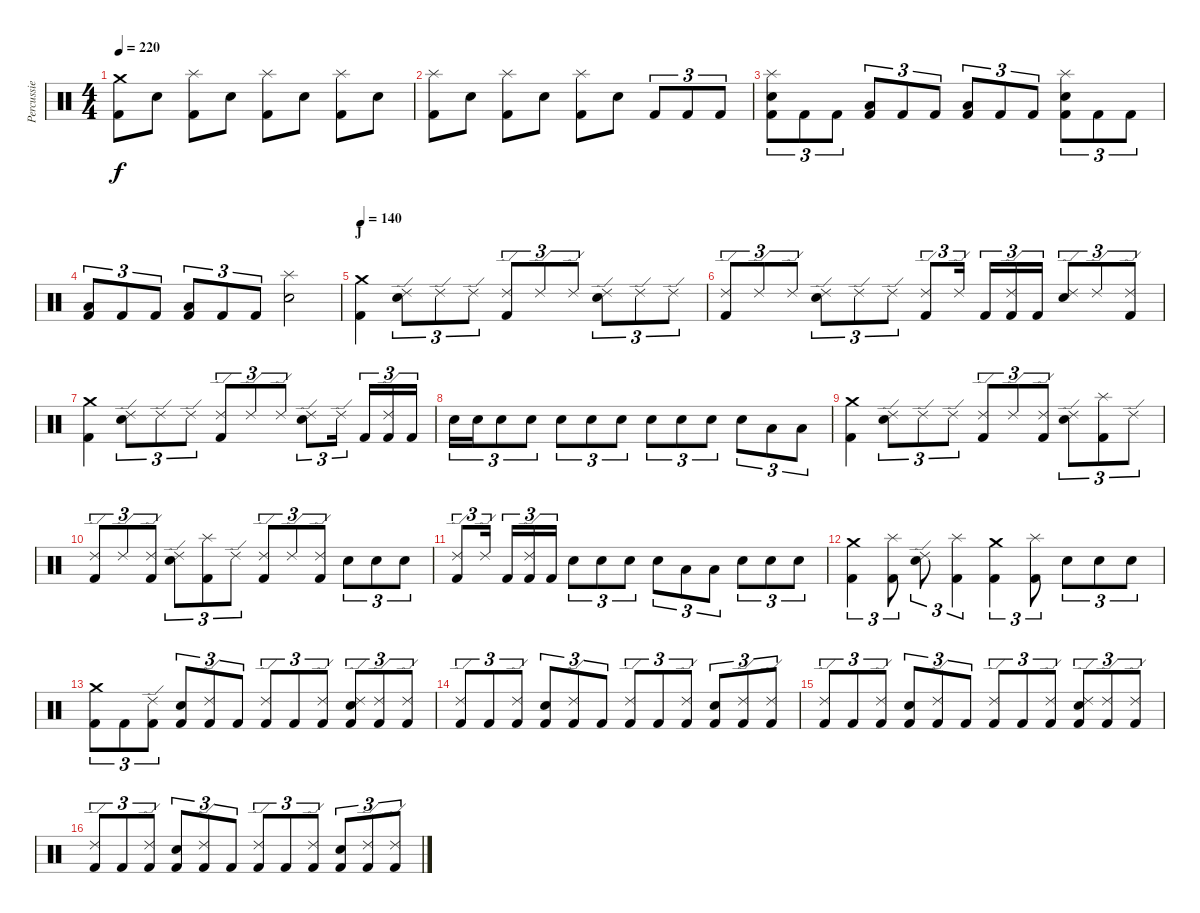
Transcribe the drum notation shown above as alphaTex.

\track ("Percussie" "Percussie") {instrument percussion}
\staff {score}
\articulation defaults
\ts (4 4)
\tempo 220
\clef neutral
\ks c
("Crash medium (hit)" "Kick (hit) 2").8{dy f} "Electric Snare (hit)".8 ("Splash (hit)" "Kick (hit) 2").8 "Electric Snare (hit)".8 ("Splash (hit)" "Kick (hit) 2").8 "Electric Snare (hit)".8 ("Splash (hit)" "Kick (hit) 2").8 "Electric Snare (hit)".8 |
("Splash (hit)" "Kick (hit) 2").8 "Electric Snare (hit)".8 ("Splash (hit)" "Kick (hit) 2").8 "Electric Snare (hit)".8 ("Splash (hit)" "Kick (hit) 2").8 "Electric Snare (hit)".8 "Kick (hit) 2".8{tu (3 2)} "Kick (hit) 2".8{tu (3 2)} "Kick (hit) 2".8{tu (3 2)} |
("Splash (hit)" "Electric Snare (hit)" "Kick (hit) 2").8{tu (3 2)} "Kick (hit) 2".8{tu (3 2)} "Kick (hit) 2".8{tu (3 2)} ("Low Tom (hit)" "Kick (hit) 2").8{tu (3 2)} "Kick (hit) 2".8{tu (3 2)} "Kick (hit) 2".8{tu (3 2)} ("Low Tom (hit)" "Kick (hit) 2").8{tu (3 2)} "Kick (hit) 2".8{tu (3 2)} "Kick (hit) 2".8{tu (3 2)} ("Splash (hit)" "Electric Snare (hit)" "Kick (hit) 2").8{tu (3 2)} "Kick (hit) 2".8{tu (3 2)} "Kick (hit) 2".8{tu (3 2)} |
("Low Tom (hit)" "Kick (hit) 2").8{tu (3 2)} "Kick (hit) 2".8{tu (3 2)} "Kick (hit) 2".8{tu (3 2)} ("Low Tom (hit)" "Kick (hit) 2").8{tu (3 2)} "Kick (hit) 2".8{tu (3 2)} "Kick (hit) 2".8{tu (3 2)} ("Splash (hit)" "Electric Snare (hit)").2 |
\section ("" "J")
\tempo 140
("Crash medium (hit)" "Kick (hit) 2").4 ("Ride (edge) 2" "Electric Snare (hit)").8{tu (3 2)} "Ride (edge) 2".8{tu (3 2)} "Ride (edge) 2".8{tu (3 2)} ("Ride (edge) 2" "Kick (hit) 2").8{tu (3 2)} "Ride (edge) 2".8{tu (3 2)} "Ride (edge) 2".8{tu (3 2)} ("Ride (edge) 2" "Electric Snare (hit)").8{tu (3 2)} "Ride (edge) 2".8{tu (3 2)} "Ride (edge) 2".8{tu (3 2)} |
("Ride (edge) 2" "Kick (hit) 2").8{tu (3 2)} "Ride (edge) 2".8{tu (3 2)} "Ride (edge) 2".8{tu (3 2)} ("Ride (edge) 2" "Electric Snare (hit)").8{tu (3 2)} "Ride (edge) 2".8{tu (3 2)} "Ride (edge) 2".8{tu (3 2)} ("Ride (edge) 2" "Kick (hit) 2").8{tu (3 2)} "Ride (edge) 2".16{tu (3 2)} "Kick (hit) 2".16{tu (3 2)} ("Ride (edge) 2" "Kick (hit) 2").16{tu (3 2)} "Kick (hit) 2".16{tu (3 2)} ("Ride (edge) 2" "Electric Snare (hit)").8{tu (3 2)} "Ride (edge) 2".8{tu (3 2)} ("Ride (edge) 2" "Kick (hit) 2").8{tu (3 2)} |
("Crash medium (hit)" "Kick (hit) 2").4 ("Ride (edge) 2" "Electric Snare (hit)").8{tu (3 2)} "Ride (edge) 2".8{tu (3 2)} "Ride (edge) 2".8{tu (3 2)} ("Ride (edge) 2" "Kick (hit) 2").8{tu (3 2)} "Ride (edge) 2".8{tu (3 2)} "Ride (edge) 2".8{tu (3 2)} ("Ride (edge) 2" "Electric Snare (hit)").8{tu (3 2)} "Ride (edge) 2".16{tu (3 2)} "Kick (hit) 2".16{tu (3 2)} ("Ride (edge) 2" "Kick (hit) 2").16{tu (3 2)} "Kick (hit) 2".16{tu (3 2)} |
"Electric Snare (hit)".16{tu (3 2)} "Electric Snare (hit)".16{tu (3 2)} "Electric Snare (hit)".8{tu (3 2)} "Electric Snare (hit)".8{tu (3 2)} "Electric Snare (hit)".8{tu (3 2)} "Electric Snare (hit)".8{tu (3 2)} "Electric Snare (hit)".8{tu (3 2)} "Electric Snare (hit)".8{tu (3 2)} "Electric Snare (hit)".8{tu (3 2)} "Electric Snare (hit)".8{tu (3 2)} "Electric Snare (hit)".8{tu (3 2)} "Low Tom (hit)".8{tu (3 2)} "Low Tom (hit)".8{tu (3 2)} |
("Crash medium (hit)" "Kick (hit) 2").4 ("Ride (edge) 2" "Electric Snare (hit)").8{tu (3 2)} "Ride (edge) 2".8{tu (3 2)} "Ride (edge) 2".8{tu (3 2)} ("Ride (edge) 2" "Kick (hit) 2").8{tu (3 2)} "Ride (edge) 2".8{tu (3 2)} ("Ride (edge) 2" "Kick (hit) 2").8{tu (3 2)} ("Ride (edge) 2" "Electric Snare (hit)").8{tu (3 2)} ("Splash (hit)" "Kick (hit) 2").8{tu (3 2)} "Ride (edge) 2".8{tu (3 2)} |
("Ride (edge) 2" "Kick (hit) 2").8{tu (3 2)} "Ride (edge) 2".8{tu (3 2)} ("Ride (edge) 2" "Kick (hit) 2").8{tu (3 2)} ("Ride (edge) 2" "Electric Snare (hit)").8{tu (3 2)} ("Splash (hit)" "Kick (hit) 2").8{tu (3 2)} "Ride (edge) 2".8{tu (3 2)} ("Ride (edge) 2" "Kick (hit) 2").8{tu (3 2)} "Ride (edge) 2".8{tu (3 2)} ("Ride (edge) 2" "Kick (hit) 2").8{tu (3 2)} "Electric Snare (hit)".8{tu (3 2)} "Electric Snare (hit)".8{tu (3 2)} "Electric Snare (hit)".8{tu (3 2)} |
("Ride (edge) 2" "Kick (hit) 2").8{tu (3 2)} "Ride (edge) 2".16{tu (3 2)} "Kick (hit) 2".16{tu (3 2)} ("Ride (edge) 2" "Kick (hit) 2").16{tu (3 2)} "Kick (hit) 2".16{tu (3 2)} "Electric Snare (hit)".8{tu (3 2)} "Electric Snare (hit)".8{tu (3 2)} "Electric Snare (hit)".8{tu (3 2)} "Electric Snare (hit)".8{tu (3 2)} "Low Tom (hit)".8{tu (3 2)} "Low Tom (hit)".8{tu (3 2)} "Electric Snare (hit)".8{tu (3 2)} "Electric Snare (hit)".8{tu (3 2)} "Electric Snare (hit)".8{tu (3 2)} |
("Crash medium (hit)" "Kick (hit) 2").4{tu (3 2)} ("Splash (hit)" "Kick (hit) 2").8{tu (3 2)} ("Ride (edge) 2" "Electric Snare (hit)").8{tu (3 2)} ("Splash (hit)" "Kick (hit) 2").4{tu (3 2)} ("Crash medium (hit)" "Kick (hit) 2").4{tu (3 2)} ("Splash (hit)" "Kick (hit) 2").8{tu (3 2)} "Electric Snare (hit)".8{tu (3 2)} "Electric Snare (hit)".8{tu (3 2)} "Electric Snare (hit)".8{tu (3 2)} |
("Crash medium (hit)" "Kick (hit) 2").8{tu (3 2)} "Kick (hit) 2".8{tu (3 2)} ("Ride (edge) 2" "Kick (hit) 2").8{tu (3 2)} ("Electric Snare (hit)" "Kick (hit) 2").8{tu (3 2)} ("Ride (edge) 2" "Kick (hit) 2").8{tu (3 2)} "Kick (hit) 2".8{tu (3 2)} ("Ride (edge) 2" "Kick (hit) 2").8{tu (3 2)} "Kick (hit) 2".8{tu (3 2)} ("Ride (edge) 2" "Kick (hit) 2").8{tu (3 2)} ("Ride (edge) 2" "Electric Snare (hit)" "Kick (hit) 2").8{tu (3 2)} ("Ride (edge) 2" "Kick (hit) 2").8{tu (3 2)} ("Ride (edge) 2" "Kick (hit) 2").8{tu (3 2)} |
("Ride (edge) 2" "Kick (hit) 2").8{tu (3 2)} "Kick (hit) 2".8{tu (3 2)} ("Ride (edge) 2" "Kick (hit) 2").8{tu (3 2)} ("Electric Snare (hit)" "Kick (hit) 2").8{tu (3 2)} ("Ride (edge) 2" "Kick (hit) 2").8{tu (3 2)} "Kick (hit) 2".8{tu (3 2)} ("Ride (edge) 2" "Kick (hit) 2").8{tu (3 2)} "Kick (hit) 2".8{tu (3 2)} ("Ride (edge) 2" "Kick (hit) 2").8{tu (3 2)} ("Electric Snare (hit)" "Kick (hit) 2").8{tu (3 2)} ("Ride (edge) 2" "Kick (hit) 2").8{tu (3 2)} ("Ride (edge) 2" "Kick (hit) 2").8{tu (3 2)} |
("Ride (edge) 2" "Kick (hit) 2").8{tu (3 2)} "Kick (hit) 2".8{tu (3 2)} ("Ride (edge) 2" "Kick (hit) 2").8{tu (3 2)} ("Electric Snare (hit)" "Kick (hit) 2").8{tu (3 2)} ("Ride (edge) 2" "Kick (hit) 2").8{tu (3 2)} "Kick (hit) 2".8{tu (3 2)} ("Ride (edge) 2" "Kick (hit) 2").8{tu (3 2)} "Kick (hit) 2".8{tu (3 2)} ("Ride (edge) 2" "Kick (hit) 2").8{tu (3 2)} ("Ride (edge) 2" "Electric Snare (hit)" "Kick (hit) 2").8{tu (3 2)} ("Ride (edge) 2" "Kick (hit) 2").8{tu (3 2)} ("Ride (edge) 2" "Kick (hit) 2").8{tu (3 2)} |
("Ride (edge) 2" "Kick (hit) 2").8{tu (3 2)} "Kick (hit) 2".8{tu (3 2)} ("Ride (edge) 2" "Kick (hit) 2").8{tu (3 2)} ("Electric Snare (hit)" "Kick (hit) 2").8{tu (3 2)} ("Ride (edge) 2" "Kick (hit) 2").8{tu (3 2)} "Kick (hit) 2".8{tu (3 2)} ("Ride (edge) 2" "Kick (hit) 2").8{tu (3 2)} "Kick (hit) 2".8{tu (3 2)} ("Ride (edge) 2" "Kick (hit) 2").8{tu (3 2)} ("Electric Snare (hit)" "Kick (hit) 2").8{tu (3 2)} ("Ride (edge) 2" "Kick (hit) 2").8{tu (3 2)} ("Ride (edge) 2" "Kick (hit) 2").8{tu (3 2)}
